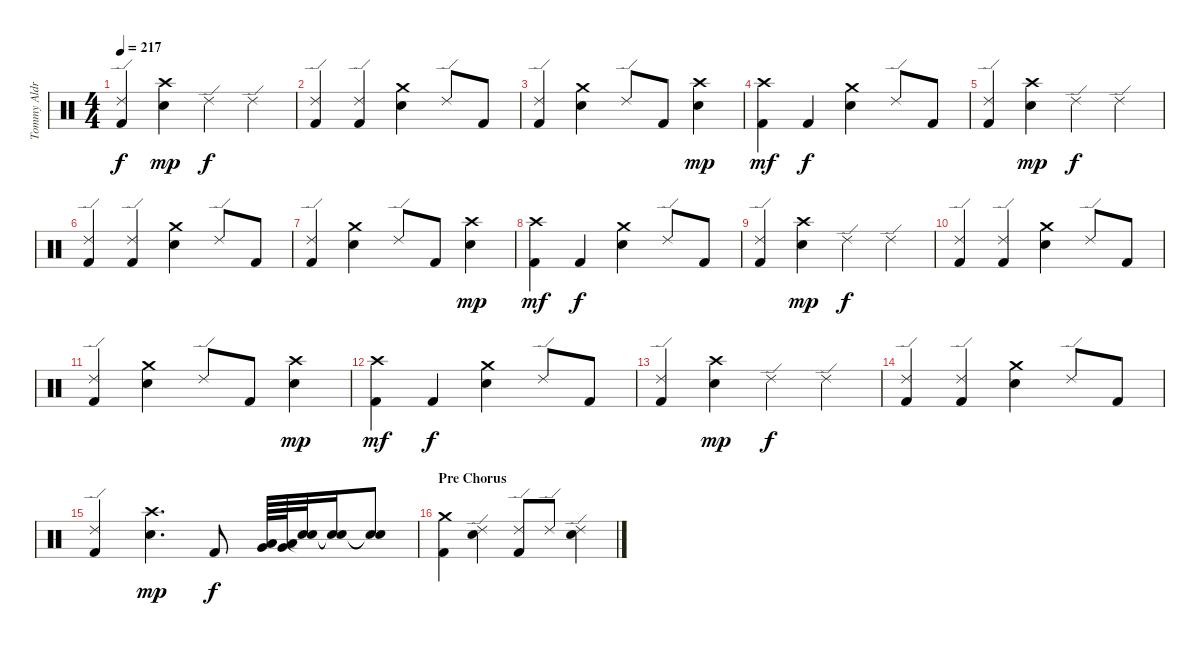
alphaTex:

\track ("Tommy Aldridge" "Tommy Aldr") {instrument percussion}
\staff {score}
\articulation defaults
\ts (4 4)
\tempo 217
\clef neutral
\ks c
("Kick (hit) 2" "Ride (edge) 2").4{dy f} ("Crash high (hit)" "Snare (hit) 2").4{dy mp} "Ride (edge) 2".4{dy f} "Ride (edge) 2".4 |
("Kick (hit) 2" "Ride (edge) 2").4 ("Kick (hit) 2" "Ride (edge) 2").4 ("Crash medium (hit)" "Snare (hit) 2").4 "Ride (edge) 2".8 "Kick (hit) 2".8 |
("Kick (hit) 2" "Ride (edge) 2").4 ("Crash medium (hit)" "Snare (hit) 2").4 "Ride (edge) 2".8 "Kick (hit) 2".8 ("Crash high (hit)" "Snare (hit) 2").4{dy mp} |
("Kick (hit) 2" "Crash high (hit)").4{dy mf} "Kick (hit) 2".4{dy f} ("Crash medium (hit)" "Snare (hit) 2").4 "Ride (edge) 2".8 "Kick (hit) 2".8 |
("Kick (hit) 2" "Ride (edge) 2").4 ("Crash high (hit)" "Snare (hit) 2").4{dy mp} "Ride (edge) 2".4{dy f} "Ride (edge) 2".4 |
("Kick (hit) 2" "Ride (edge) 2").4 ("Kick (hit) 2" "Ride (edge) 2").4 ("Crash medium (hit)" "Snare (hit) 2").4 "Ride (edge) 2".8 "Kick (hit) 2".8 |
("Kick (hit) 2" "Ride (edge) 2").4 ("Crash medium (hit)" "Snare (hit) 2").4 "Ride (edge) 2".8 "Kick (hit) 2".8 ("Crash high (hit)" "Snare (hit) 2").4{dy mp} |
("Kick (hit) 2" "Crash high (hit)").4{dy mf} "Kick (hit) 2".4{dy f} ("Crash medium (hit)" "Snare (hit) 2").4 "Ride (edge) 2".8 "Kick (hit) 2".8 |
("Kick (hit) 2" "Ride (edge) 2").4 ("Crash high (hit)" "Snare (hit) 2").4{dy mp} "Ride (edge) 2".4{dy f} "Ride (edge) 2".4 |
("Kick (hit) 2" "Ride (edge) 2").4 ("Kick (hit) 2" "Ride (edge) 2").4 ("Crash medium (hit)" "Snare (hit) 2").4 "Ride (edge) 2".8 "Kick (hit) 2".8 |
("Kick (hit) 2" "Ride (edge) 2").4 ("Crash medium (hit)" "Snare (hit) 2").4 "Ride (edge) 2".8 "Kick (hit) 2".8 ("Crash high (hit)" "Snare (hit) 2").4{dy mp} |
("Kick (hit) 2" "Crash high (hit)").4{dy mf} "Kick (hit) 2".4{dy f} ("Crash medium (hit)" "Snare (hit) 2").4 "Ride (edge) 2".8 "Kick (hit) 2".8 |
("Kick (hit) 2" "Ride (edge) 2").4 ("Crash high (hit)" "Snare (hit) 2").4{dy mp} "Ride (edge) 2".4{dy f} "Ride (edge) 2".4 |
("Kick (hit) 2" "Ride (edge) 2").4 ("Kick (hit) 2" "Ride (edge) 2").4 ("Crash medium (hit)" "Snare (hit) 2").4 "Ride (edge) 2".8 "Kick (hit) 2".8 |
("Kick (hit) 2" "Ride (edge) 2").4 ("Crash high (hit)" "Snare (hit) 2").4{d dy mp} "Kick (hit) 2".8{dy f} ("Very Low Tom (hit)" "Low Floor Tom (hit)").64 ("Very Low Tom (hit)" "Low Floor Tom (hit)").64 ("Snare (hit)"{t} "Snare (hit)"{t}).32 ("Snare (hit)"{t} "Snare (hit)"{t}).16 ("Snare (hit)"{t} "Snare (hit)"{t}).8 |
\section ("" "Pre Chorus")
("Kick (hit) 2" "Crash medium (hit)").4 ("Ride (edge) 2" "Snare (hit) 2").4 ("Kick (hit) 2" "Ride (edge) 2").8 "Ride (edge) 2".8 ("Ride (edge) 2" "Snare (hit) 2").4
